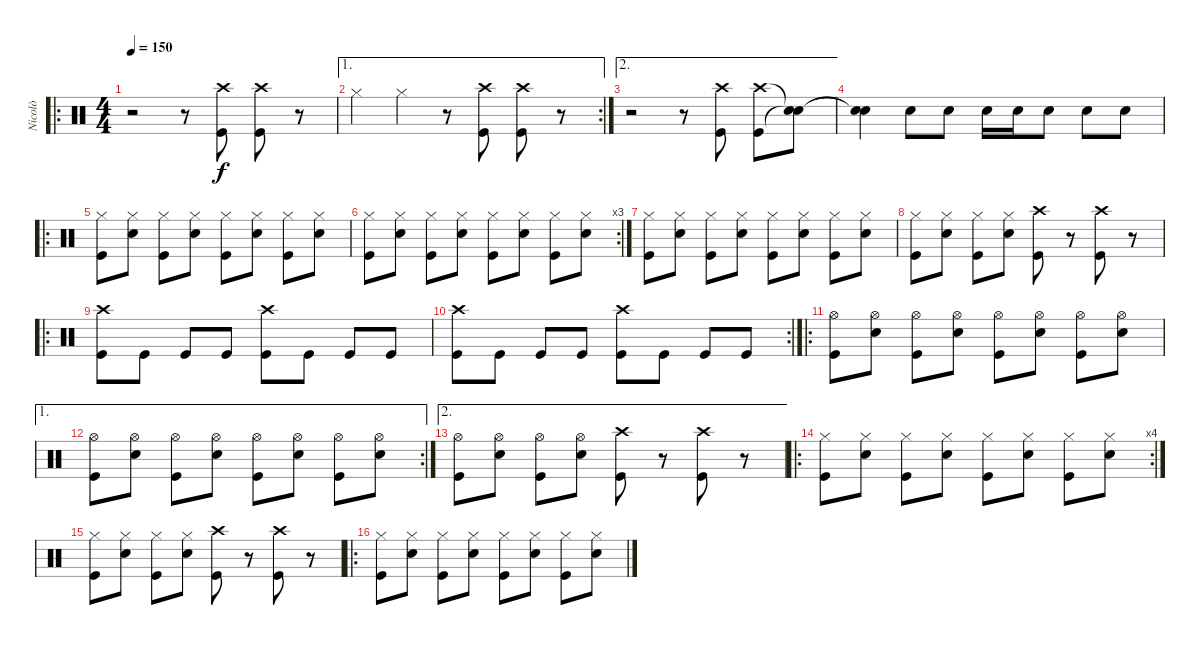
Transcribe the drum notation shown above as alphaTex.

\track ("Nicolò" "Nicolò") {instrument percussion}
\staff {score}
\articulation defaults
\ro
\ts (4 4)
\tempo 150
\clef neutral
\ks c
r.2{dy f} r.8 ("Crash high (hit)" "Kick (hit)").8 ("Crash high (hit)" "Kick (hit)").8 r.8 |
\ae 1
\rc 2 "Hi-Hat (closed)".4 "Hi-Hat (closed)".4
r.8 ("Crash high (hit)" "Kick (hit)").8 ("Crash high (hit)" "Kick (hit)").8 r.8 |
\ae 2
r.2 r.8 ("Crash high (hit)" "Kick (hit)").8 ("Crash high (hit)" "Kick (hit)").8 ("Snare (hit)"{t} "Snare (hit)"{t}).8 |
("Snare (hit)"{t} "Snare (hit)"{t}).4 "Snare (hit) 2".8 "Snare (hit) 2".8 "Snare (hit) 2".16 "Snare (hit) 2".16 "Snare (hit) 2".8 "Snare (hit) 2".8 "Snare (hit) 2".8 |
\ro
("Hi-Hat (closed)" "Kick (hit)").8 ("Hi-Hat (closed)" "Snare (hit) 2").8 ("Hi-Hat (closed)" "Kick (hit)").8 ("Hi-Hat (closed)" "Snare (hit) 2").8 ("Hi-Hat (closed)" "Kick (hit)").8 ("Hi-Hat (closed)" "Snare (hit) 2").8 ("Hi-Hat (closed)" "Kick (hit)").8 ("Hi-Hat (closed)" "Snare (hit) 2").8 |
\rc 3
("Hi-Hat (closed)" "Kick (hit)").8 ("Hi-Hat (closed)" "Snare (hit) 2").8 ("Hi-Hat (closed)" "Kick (hit)").8 ("Hi-Hat (closed)" "Snare (hit) 2").8 ("Hi-Hat (closed)" "Kick (hit)").8 ("Hi-Hat (closed)" "Snare (hit) 2").8 ("Hi-Hat (closed)" "Kick (hit)").8 ("Hi-Hat (closed)" "Snare (hit) 2").8 |
("Hi-Hat (closed)" "Kick (hit)").8 ("Hi-Hat (closed)" "Snare (hit) 2").8 ("Hi-Hat (closed)" "Kick (hit)").8 ("Hi-Hat (closed)" "Snare (hit) 2").8 ("Hi-Hat (closed)" "Kick (hit)").8 ("Hi-Hat (closed)" "Snare (hit) 2").8 ("Hi-Hat (closed)" "Kick (hit)").8 ("Hi-Hat (closed)" "Snare (hit) 2").8 |
("Hi-Hat (closed)" "Kick (hit)").8 ("Hi-Hat (closed)" "Snare (hit) 2").8 ("Hi-Hat (closed)" "Kick (hit)").8 ("Hi-Hat (closed)" "Snare (hit) 2").8 ("Crash high (hit)" "Kick (hit)").8 r.8 ("Crash high (hit)" "Kick (hit)").8 r.8 |
\ro
("Crash high (hit)" "Kick (hit)").8 "Kick (hit)".8 "Kick (hit)".8 "Kick (hit)".8 ("Crash high (hit)" "Kick (hit)").8 "Kick (hit)".8 "Kick (hit)".8 "Kick (hit)".8 |
\rc 2
("Crash high (hit)" "Kick (hit)").8 "Kick (hit)".8 "Kick (hit)".8 "Kick (hit)".8 ("Crash high (hit)" "Kick (hit)").8 "Kick (hit)".8 "Kick (hit)".8 "Kick (hit)".8 |
\ro
("Hi-Hat (open)" "Kick (hit)").8 ("Hi-Hat (open)" "Snare (hit) 2").8 ("Hi-Hat (open)" "Kick (hit)").8 ("Hi-Hat (open)" "Snare (hit) 2").8 ("Hi-Hat (open)" "Kick (hit)").8 ("Hi-Hat (open)" "Snare (hit) 2").8 ("Hi-Hat (open)" "Kick (hit)").8 ("Hi-Hat (open)" "Snare (hit) 2").8 |
\ae 1
\rc 2
("Hi-Hat (open)" "Kick (hit)").8 ("Hi-Hat (open)" "Snare (hit) 2").8 ("Hi-Hat (open)" "Kick (hit)").8 ("Hi-Hat (open)" "Snare (hit) 2").8 ("Hi-Hat (open)" "Kick (hit)").8 ("Hi-Hat (open)" "Snare (hit) 2").8 ("Hi-Hat (open)" "Kick (hit)").8 ("Hi-Hat (open)" "Snare (hit) 2").8 |
\ae 2
("Hi-Hat (open)" "Kick (hit)").8 ("Hi-Hat (open)" "Snare (hit) 2").8 ("Hi-Hat (open)" "Kick (hit)").8 ("Hi-Hat (open)" "Snare (hit) 2").8 ("Crash high (hit)" "Kick (hit)").8 r.8 ("Crash high (hit)" "Kick (hit)").8 r.8 |
\ro
\rc 4
("Hi-Hat (closed)" "Kick (hit)").8 ("Hi-Hat (closed)" "Snare (hit) 2").8 ("Hi-Hat (closed)" "Kick (hit)").8 ("Hi-Hat (closed)" "Snare (hit) 2").8 ("Hi-Hat (closed)" "Kick (hit)").8 ("Hi-Hat (closed)" "Snare (hit) 2").8 ("Hi-Hat (closed)" "Kick (hit)").8 ("Hi-Hat (closed)" "Snare (hit) 2").8 |
("Hi-Hat (closed)" "Kick (hit)").8 ("Hi-Hat (closed)" "Snare (hit) 2").8 ("Hi-Hat (closed)" "Kick (hit)").8 ("Hi-Hat (closed)" "Snare (hit) 2").8 ("Crash high (hit)" "Kick (hit)").8 r.8 ("Crash high (hit)" "Kick (hit)").8 r.8 |
\ro
("Hi-Hat (closed)" "Kick (hit)").8 ("Hi-Hat (closed)" "Snare (hit) 2").8 ("Hi-Hat (closed)" "Kick (hit)").8 ("Hi-Hat (closed)" "Snare (hit) 2").8 ("Hi-Hat (closed)" "Kick (hit)").8 ("Hi-Hat (closed)" "Snare (hit) 2").8 ("Hi-Hat (closed)" "Kick (hit)").8 ("Hi-Hat (closed)" "Snare (hit) 2").8
